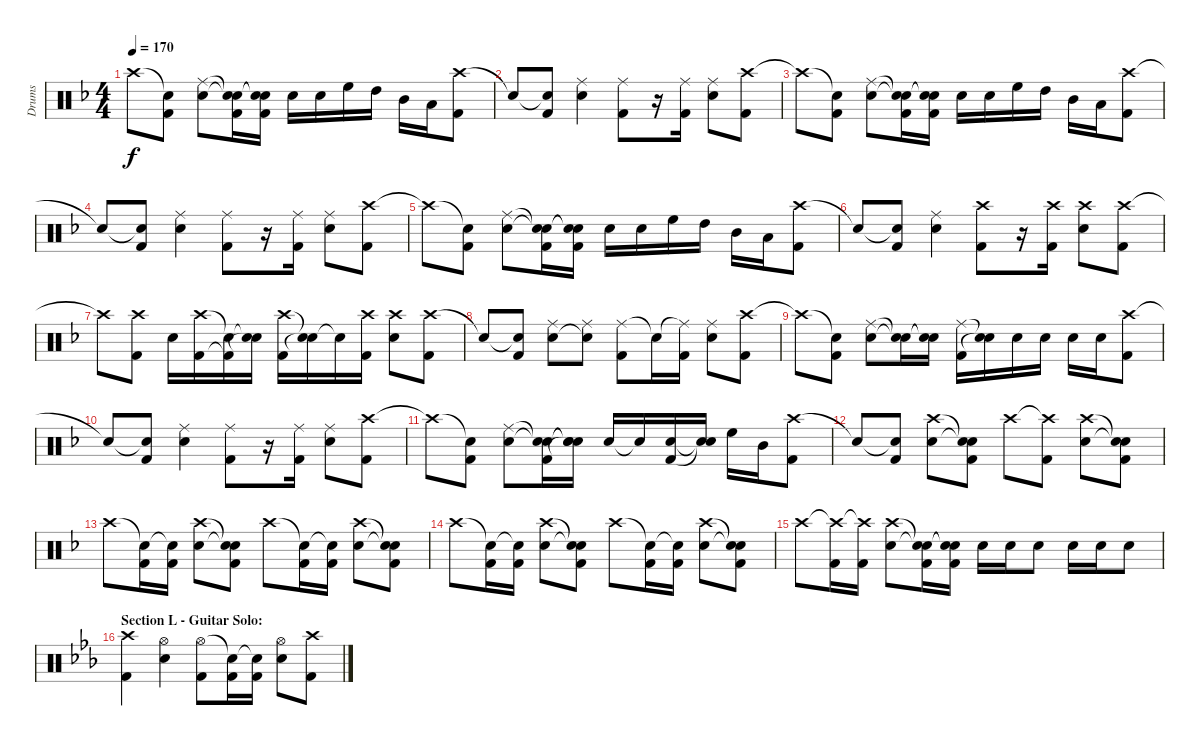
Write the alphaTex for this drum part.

\track ("Drums" "Drums") {instrument percussion}
\staff {score}
\articulation defaults
\ts (4 4)
\tempo 170
\clef neutral
\ks f "Crash high (hit)"{t}.8{dy f}
("Snare (hit)"{t} "Kick (hit) 2").8 ("Ride (middle)" "Snare (hit) 2").8 ("Snare (hit)"{t} "Snare (hit)"{t} "Kick (hit) 2").16 ("Snare (hit)"{t} "Snare (hit)"{t} "Kick (hit) 2").16 "Snare (hit) 2".16 "Snare (hit) 2".16 "High Floor Tom (hit)".16 "High Tom (hit)".16 "Mid Tom (hit)".16 "Low Tom (hit)".16 ("Crash high (hit)" "Kick (hit) 2").8 |
"Snare (hit)"{t}.8 ("Snare (hit)"{t} "Kick (hit) 2").8 ("Ride (middle)" "Snare (hit) 2").4 ("Ride (middle)" "Kick (hit) 2").8 r.16 ("Ride (middle)" "Kick (hit) 2").16 ("Ride (middle)" "Snare (hit) 2").8 ("Crash high (hit)" "Kick (hit) 2").8 |
"Crash high (hit)"{t}.8 ("Snare (hit)"{t} "Kick (hit) 2").8 ("Ride (middle)" "Snare (hit) 2").8 ("Snare (hit)"{t} "Snare (hit)"{t} "Kick (hit) 2").16 ("Snare (hit)"{t} "Snare (hit)"{t} "Kick (hit) 2").16 "Snare (hit) 2".16 "Snare (hit) 2".16 "High Floor Tom (hit)".16 "High Tom (hit)".16 "Mid Tom (hit)".16 "Low Tom (hit)".16 ("Crash high (hit)" "Kick (hit) 2").8 |
"Snare (hit)"{t}.8 ("Snare (hit)"{t} "Kick (hit) 2").8 ("Ride (middle)" "Snare (hit) 2").4 ("Ride (middle)" "Kick (hit) 2").8 r.16 ("Ride (middle)" "Kick (hit) 2").16 ("Ride (middle)" "Snare (hit) 2").8 ("Crash high (hit)" "Kick (hit) 2").8 |
"Crash high (hit)"{t}.8 ("Snare (hit)"{t} "Kick (hit) 2").8 ("Ride (middle)" "Snare (hit) 2").8 ("Snare (hit)"{t} "Snare (hit)"{t} "Kick (hit) 2").16 ("Snare (hit)"{t} "Snare (hit)"{t} "Kick (hit) 2").16 "Snare (hit) 2".16 "Snare (hit) 2".16 "High Floor Tom (hit)".16 "High Tom (hit)".16 "Mid Tom (hit)".16 "Low Tom (hit)".16 ("Crash high (hit)" "Kick (hit) 2").8 |
"Snare (hit)"{t}.8 ("Snare (hit)"{t} "Kick (hit) 2").8 ("Ride (middle)" "Snare (hit) 2").4 ("Crash high (hit)" "Kick (hit) 2").8 r.16 ("Crash high (hit)" "Kick (hit) 2").16 ("Crash high (hit)" "Snare (hit) 2").8 ("Crash high (hit)" "Kick (hit) 2").8 |
"Crash high (hit)"{t}.8 ("Crash high (hit)" "Kick (hit) 2").8 "Snare (hit) 2".16 ("Crash high (hit)" "Kick (hit) 2").16 ("Snare (hit)"{t} "Kick (hit) 2"{t}).16 ("Snare (hit)"{t} "Snare (hit)"{t}).16 ("Crash high (hit)" "Kick (hit) 2").16 ("Snare (hit)"{t} "Snare (hit)"{t}).16 "Snare (hit)"{t}.16 ("Crash high (hit)" "Kick (hit) 2").16 ("Crash high (hit)" "Snare (hit) 2").8 ("Crash high (hit)" "Kick (hit) 2").8 |
"Snare (hit)"{t}.8 ("Snare (hit)"{t} "Kick (hit) 2").8 ("Ride (middle)" "Snare (hit) 2").8 ("Ride (middle)" "Snare (hit)"{t}).8 ("Ride (middle)" "Kick (hit) 2").8 "Snare (hit)"{t}.16 ("Ride (middle)"{t} "Kick (hit) 2").16 ("Ride (middle)" "Snare (hit) 2").8 ("Crash high (hit)" "Kick (hit) 2").8 |
"Crash high (hit)"{t}.8 ("Snare (hit)"{t} "Kick (hit) 2").8 ("Ride (middle)" "Snare (hit) 2").8 ("Snare (hit)"{t} "Snare (hit)"{t}).16 ("Snare (hit)"{t} "Snare (hit)"{t}).16 ("Ride (middle)" "Kick (hit) 2").16 ("Snare (hit)"{t} "Snare (hit)"{t}).16 "Snare (hit) 2".16 "Snare (hit) 2".16 "Snare (hit) 2".16 "Snare (hit) 2".16 ("Crash high (hit)" "Kick (hit) 2").8 |
"Snare (hit)"{t}.8 ("Snare (hit)"{t} "Kick (hit) 2").8 ("Ride (middle)" "Snare (hit) 2").4 ("Ride (middle)" "Kick (hit) 2").8 r.16 ("Ride (middle)" "Kick (hit) 2").16 ("Ride (middle)" "Snare (hit) 2").8 ("Crash high (hit)" "Kick (hit) 2").8 |
"Crash high (hit)"{t}.8 ("Snare (hit)"{t} "Kick (hit) 2").8 ("Ride (middle)" "Snare (hit) 2").8 ("Snare (hit)"{t} "Snare (hit)"{t} "Kick (hit) 2").16 ("Snare (hit)"{t} "Snare (hit)"{t} "Snare (hit)"{t}).16 "Snare (hit) 2".16 "Snare (hit)"{t}.16 ("Snare (hit) 2" "Kick (hit) 2").16 ("Snare (hit) 2"{t} "Snare (hit)"{t}).16 "High Floor Tom (hit)".16 "Mid Tom (hit)".16 ("Crash high (hit)" "Kick (hit) 2").8 |
"Snare (hit)"{t}.8 ("Snare (hit)"{t} "Kick (hit) 2").8 ("Crash high (hit)" "Snare (hit) 2").8 ("Snare (hit)"{t} "Snare (hit)"{t} "Kick (hit) 2").8 "Crash high (hit)".8 ("Crash high (hit)"{t} "Kick (hit) 2").8 ("Crash high (hit)" "Snare (hit) 2").8 ("Snare (hit)"{t} "Snare (hit)"{t} "Kick (hit) 2").8 |
"Crash high (hit)".8 ("Snare (hit)"{t} "Kick (hit) 2").16 ("Snare (hit)"{t} "Kick (hit) 2").16 ("Crash high (hit)" "Snare (hit) 2").8 ("Snare (hit)"{t} "Snare (hit)"{t} "Kick (hit) 2").8 "Crash high (hit)".8 ("Snare (hit)"{t} "Kick (hit) 2").16 ("Snare (hit)"{t} "Kick (hit) 2").16 ("Crash high (hit)" "Snare (hit) 2").8 ("Snare (hit)"{t} "Snare (hit)"{t} "Kick (hit) 2").8 |
"Crash high (hit)".8 ("Snare (hit)"{t} "Kick (hit) 2").16 ("Snare (hit)"{t} "Kick (hit) 2").16 ("Crash high (hit)" "Snare (hit) 2").8 ("Snare (hit)"{t} "Snare (hit)"{t} "Kick (hit) 2").8 "Crash high (hit)".8 ("Snare (hit)"{t} "Kick (hit) 2").16 ("Snare (hit)"{t} "Kick (hit) 2").16 ("Crash high (hit)" "Snare (hit) 2").8 ("Snare (hit)"{t} "Snare (hit)"{t} "Kick (hit) 2").8 |
"Crash high (hit)".8 ("Crash high (hit)"{t} "Kick (hit) 2").16 ("Crash high (hit)"{t} "Kick (hit) 2").16 ("Crash high (hit)" "Snare (hit) 2").8 ("Snare (hit)"{t} "Snare (hit)"{t} "Kick (hit) 2").16 ("Snare (hit)"{t} "Snare (hit)"{t} "Kick (hit) 2").16 "Snare (hit) 2".16 "Snare (hit) 2".16 "Snare (hit) 2".8 "Snare (hit) 2".16 "Snare (hit) 2".16 "Snare (hit) 2".8 |
\section ("" "Section L - Guitar Solo:")
\ks eb
("Crash high (hit)" "Kick (hit) 2").4 ("Hi-Hat (open)" "Snare (hit) 2").4 ("Hi-Hat (open)" "Kick (hit) 2").8 ("Snare (hit)"{t} "Kick (hit) 2").16 ("Snare (hit)"{t} "Kick (hit) 2").16 ("Hi-Hat (open)" "Snare (hit) 2").8 ("Crash high (hit)" "Kick (hit) 2").8
